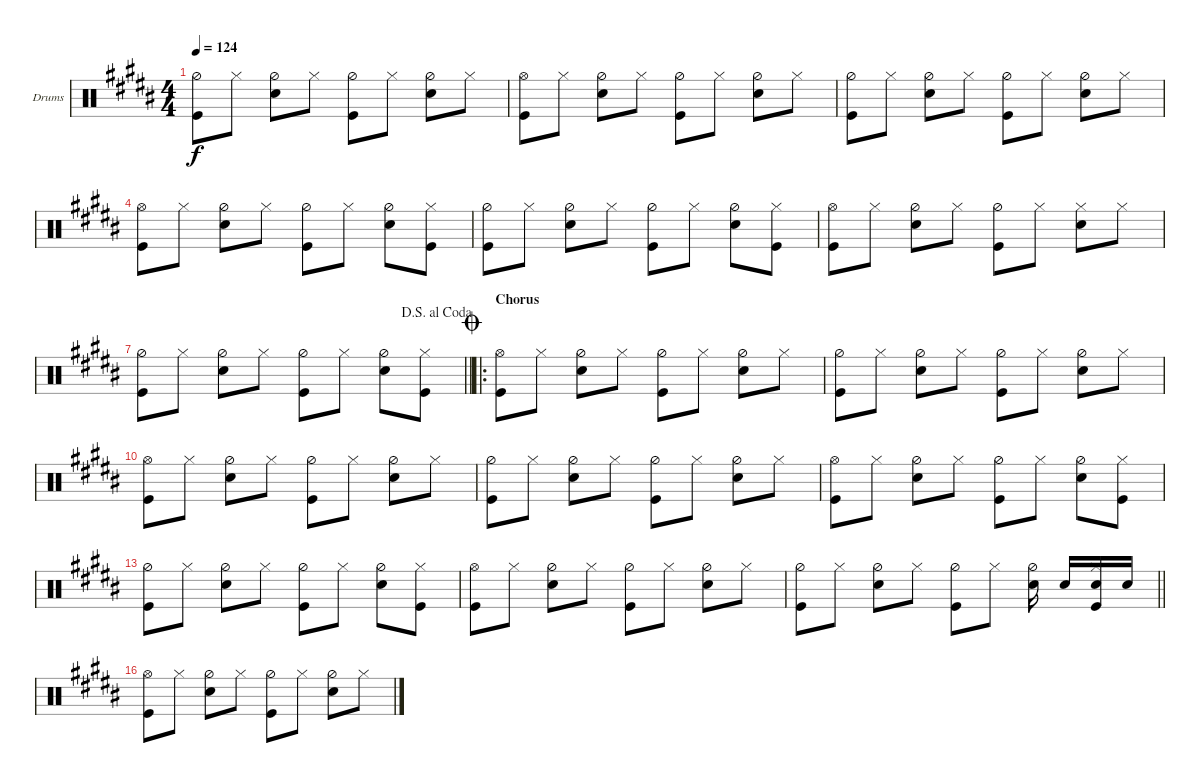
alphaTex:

\bracketExtendMode nobrackets
\firstSystemTrackNameOrientation horizontal
\otherSystemsTrackNameOrientation horizontal
\defaultBarNumberDisplay FirstOfSystem
\track ("Drumkit" "Drums") {instrument percussion}
\staff {score}
\articulation defaults
\ts (4 4)
\tempo 124
\clef neutral
\ks g#minor
("Kick (hit)" "Hi-Hat (half)").8{dy f} "Hi-Hat (closed)".8 ("Hi-Hat (half)" "Snare (hit) 2").8 "Hi-Hat (closed)".8 ("Hi-Hat (half)" "Kick (hit)").8 "Hi-Hat (closed)".8 ("Hi-Hat (half)" "Snare (hit) 2").8 "Hi-Hat (closed)".8 |
("Kick (hit)" "Hi-Hat (open)").8 "Hi-Hat (closed)".8 ("Hi-Hat (half)" "Snare (hit) 2").8 "Hi-Hat (closed)".8 ("Hi-Hat (half)" "Kick (hit)").8 "Hi-Hat (closed)".8 ("Hi-Hat (half)" "Snare (hit) 2").8 "Hi-Hat (closed)".8 |
("Kick (hit)" "Hi-Hat (half)").8 "Hi-Hat (closed)".8 ("Hi-Hat (half)" "Snare (hit) 2").8 "Hi-Hat (closed)".8 ("Hi-Hat (half)" "Kick (hit)").8 "Hi-Hat (closed)".8 ("Hi-Hat (half)" "Snare (hit) 2").8 "Hi-Hat (closed)".8 |
\ks b
("Kick (hit)" "Hi-Hat (open)").8 "Hi-Hat (closed)".8 ("Hi-Hat (half)" "Snare (hit) 2").8 "Hi-Hat (closed)".8 ("Hi-Hat (half)" "Kick (hit)").8 "Hi-Hat (closed)".8 ("Hi-Hat (half)" "Snare (hit) 2").8 ("Hi-Hat (closed)" "Kick (hit)").8 |
\ks g#minor
("Kick (hit)" "Hi-Hat (half)").8 "Hi-Hat (closed)".8 ("Hi-Hat (half)" "Snare (hit) 2").8 "Hi-Hat (closed)".8 ("Hi-Hat (half)" "Kick (hit)").8 "Hi-Hat (closed)".8 ("Hi-Hat (half)" "Snare (hit) 2").8 ("Hi-Hat (closed)" "Kick (hit)").8 |
("Kick (hit)" "Hi-Hat (open)").8 "Hi-Hat (closed)".8 ("Hi-Hat (half)" "Snare (hit) 2").8 "Hi-Hat (closed)".8 ("Hi-Hat (half)" "Kick (hit)").8 "Hi-Hat (closed)".8 ("Hi-Hat (closed)" "Snare (hit) 2").8 "Hi-Hat (closed)".8 |
\jump dalsegnoalcoda
\barLineRight lightlight
("Kick (hit)" "Hi-Hat (half)").8 "Hi-Hat (closed)".8 ("Hi-Hat (half)" "Snare (hit) 2").8 "Hi-Hat (closed)".8 ("Hi-Hat (half)" "Kick (hit)").8 "Hi-Hat (closed)".8 ("Hi-Hat (half)" "Snare (hit) 2").8 ("Hi-Hat (closed)" "Kick (hit)").8 |
\ro
\section ("" "Chorus")
\jump coda
\ks b
("Kick (hit)" "Hi-Hat (open)").8 "Hi-Hat (closed)".8 ("Hi-Hat (half)" "Snare (hit) 2").8 "Hi-Hat (closed)".8 ("Hi-Hat (half)" "Kick (hit)").8 "Hi-Hat (closed)".8 ("Hi-Hat (half)" "Snare (hit) 2").8 "Hi-Hat (closed)".8 |
\ks g#minor
("Kick (hit)" "Hi-Hat (half)").8 "Hi-Hat (closed)".8 ("Hi-Hat (half)" "Snare (hit) 2").8 "Hi-Hat (closed)".8 ("Hi-Hat (half)" "Kick (hit)").8 "Hi-Hat (closed)".8 ("Hi-Hat (half)" "Snare (hit) 2").8 "Hi-Hat (closed)".8 |
("Kick (hit)" "Hi-Hat (open)").8 "Hi-Hat (closed)".8 ("Hi-Hat (half)" "Snare (hit) 2").8 "Hi-Hat (closed)".8 ("Hi-Hat (half)" "Kick (hit)").8 "Hi-Hat (closed)".8 ("Snare (hit) 2" "Hi-Hat (half)").8 "Hi-Hat (closed)".8 |
("Kick (hit)" "Hi-Hat (half)").8 "Hi-Hat (closed)".8 ("Hi-Hat (half)" "Snare (hit) 2").8 "Hi-Hat (closed)".8 ("Hi-Hat (half)" "Kick (hit)").8 "Hi-Hat (closed)".8 ("Hi-Hat (half)" "Snare (hit) 2").8 "Hi-Hat (closed)".8 |
\ks b
("Kick (hit)" "Hi-Hat (open)").8 "Hi-Hat (closed)".8 ("Hi-Hat (half)" "Snare (hit) 2").8 "Hi-Hat (closed)".8 ("Hi-Hat (half)" "Kick (hit)").8 "Hi-Hat (closed)".8 ("Hi-Hat (half)" "Snare (hit) 2").8 ("Hi-Hat (closed)" "Kick (hit)").8 |
\ks g#minor
("Kick (hit)" "Hi-Hat (half)").8 "Hi-Hat (closed)".8 ("Hi-Hat (half)" "Snare (hit) 2").8 "Hi-Hat (closed)".8 ("Hi-Hat (half)" "Kick (hit)").8 "Hi-Hat (closed)".8 ("Hi-Hat (half)" "Snare (hit) 2").8 ("Hi-Hat (closed)" "Kick (hit)").8 |
("Kick (hit)" "Hi-Hat (open)").8 "Hi-Hat (closed)".8 ("Hi-Hat (half)" "Snare (hit) 2").8 "Hi-Hat (closed)".8 ("Hi-Hat (half)" "Kick (hit)").8 "Hi-Hat (closed)".8 ("Hi-Hat (half)" "Snare (hit) 2").8 "Hi-Hat (closed)".8 |
\barLineRight lightlight
("Kick (hit)" "Hi-Hat (half)").8 "Hi-Hat (closed)".8 ("Hi-Hat (half)" "Snare (hit) 2").8 "Hi-Hat (closed)".8 ("Hi-Hat (half)" "Kick (hit)").8 "Hi-Hat (closed)".8 ("Snare (hit) 2" "Hi-Hat (half)").16{beam split} "Snare (hit) 2".16 ("Hi-Hat (closed)" "Snare (hit) 2" "Kick (hit)").16 "Snare (hit) 2".16 |
\ks b
("Kick (hit)" "Hi-Hat (open)").8 "Hi-Hat (closed)".8 ("Hi-Hat (half)" "Snare (hit) 2").8 "Hi-Hat (closed)".8 ("Hi-Hat (half)" "Kick (hit)").8 "Hi-Hat (closed)".8 ("Hi-Hat (half)" "Snare (hit) 2").8 "Hi-Hat (closed)".8
